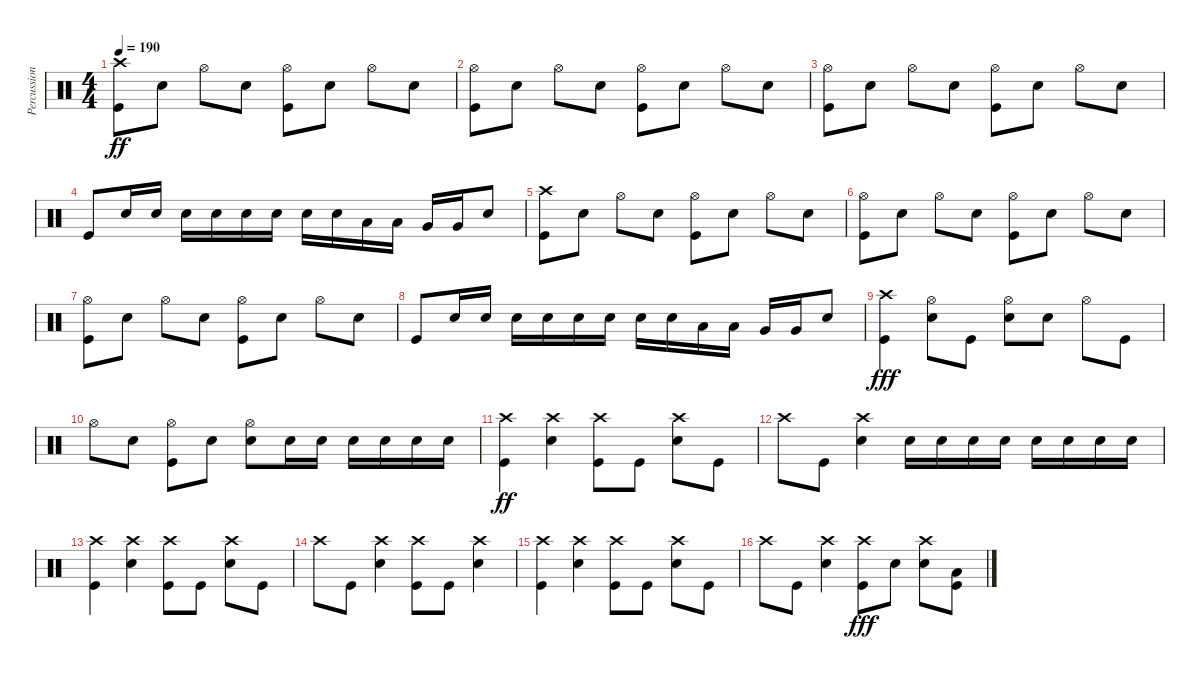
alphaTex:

\track ("Percussions" "Percussion") {instrument percussion}
\staff {score}
\articulation defaults
\ts (4 4)
\tempo 190
\clef neutral
\ks c
("Crash high (hit)" "Kick (hit)").8{dy ff} "Electric Snare (hit)".8 "Hi-Hat (open)".8 "Electric Snare (hit)".8 ("Hi-Hat (open)" "Kick (hit)").8 "Electric Snare (hit)".8 "Hi-Hat (open)".8 "Electric Snare (hit)".8 |
("Hi-Hat (open)" "Kick (hit)").8 "Electric Snare (hit)".8 "Hi-Hat (open)".8 "Electric Snare (hit)".8 ("Hi-Hat (open)" "Kick (hit)").8 "Electric Snare (hit)".8 "Hi-Hat (open)".8 "Electric Snare (hit)".8 |
("Hi-Hat (open)" "Kick (hit)").8 "Electric Snare (hit)".8 "Hi-Hat (open)".8 "Electric Snare (hit)".8 ("Hi-Hat (open)" "Kick (hit)").8 "Electric Snare (hit)".8 "Hi-Hat (open)".8 "Electric Snare (hit)".8 |
"Kick (hit)".8 "Electric Snare (hit)".16 "Electric Snare (hit)".16 "Electric Snare (hit)".16 "Electric Snare (hit)".16 "Electric Snare (hit)".16 "Electric Snare (hit)".16 "Electric Snare (hit)".16 "Electric Snare (hit)".16 "Low Tom (hit)".16 "Low Tom (hit)".16 "Very Low Tom (hit)".16 "Very Low Tom (hit)".16 "Electric Snare (hit)".8 |
("Crash high (hit)" "Kick (hit)").8 "Electric Snare (hit)".8 "Hi-Hat (open)".8 "Electric Snare (hit)".8 ("Hi-Hat (open)" "Kick (hit)").8 "Electric Snare (hit)".8 "Hi-Hat (open)".8 "Electric Snare (hit)".8 |
("Hi-Hat (open)" "Kick (hit)").8 "Electric Snare (hit)".8 "Hi-Hat (open)".8 "Electric Snare (hit)".8 ("Hi-Hat (open)" "Kick (hit)").8 "Electric Snare (hit)".8 "Hi-Hat (open)".8 "Electric Snare (hit)".8 |
("Hi-Hat (open)" "Kick (hit)").8 "Electric Snare (hit)".8 "Hi-Hat (open)".8 "Electric Snare (hit)".8 ("Hi-Hat (open)" "Kick (hit)").8 "Electric Snare (hit)".8 "Hi-Hat (open)".8 "Electric Snare (hit)".8 |
"Kick (hit)".8 "Electric Snare (hit)".16 "Electric Snare (hit)".16 "Electric Snare (hit)".16 "Electric Snare (hit)".16 "Electric Snare (hit)".16 "Electric Snare (hit)".16 "Electric Snare (hit)".16 "Electric Snare (hit)".16 "Low Tom (hit)".16 "Low Tom (hit)".16 "Very Low Tom (hit)".16 "Very Low Tom (hit)".16 "Electric Snare (hit)".8 |
("Crash high (hit)" "Kick (hit)").4{dy fff} ("Hi-Hat (open)" "Electric Snare (hit)").8 "Kick (hit)".8 ("Hi-Hat (open)" "Electric Snare (hit)").8 "Electric Snare (hit)".8 "Hi-Hat (open)".8 "Kick (hit)".8 |
"Hi-Hat (open)".8 "Electric Snare (hit)".8 ("Hi-Hat (open)" "Kick (hit)").8 "Electric Snare (hit)".8 ("Hi-Hat (open)" "Electric Snare (hit)").8 "Electric Snare (hit)".16 "Electric Snare (hit)".16 "Electric Snare (hit)".16 "Electric Snare (hit)".16 "Electric Snare (hit)".16 "Electric Snare (hit)".16 |
("Crash high (hit)" "Kick (hit)").4{dy ff} ("Crash high (hit)" "Electric Snare (hit)").4 ("Crash high (hit)" "Kick (hit)").8 "Kick (hit)".8 ("Crash high (hit)" "Electric Snare (hit)").8 "Kick (hit)".8 |
"Crash high (hit)".8 "Kick (hit)".8 ("Crash high (hit)" "Electric Snare (hit)").4 "Electric Snare (hit)".16 "Electric Snare (hit)".16 "Electric Snare (hit)".16 "Electric Snare (hit)".16 "Electric Snare (hit)".16 "Electric Snare (hit)".16 "Electric Snare (hit)".16 "Electric Snare (hit)".16 |
("Crash high (hit)" "Kick (hit)").4 ("Crash high (hit)" "Electric Snare (hit)").4 ("Crash high (hit)" "Kick (hit)").8 "Kick (hit)".8 ("Crash high (hit)" "Electric Snare (hit)").8 "Kick (hit)".8 |
"Crash high (hit)".8 "Kick (hit)".8 ("Crash high (hit)" "Electric Snare (hit)").4 ("Crash high (hit)" "Kick (hit)").8 "Kick (hit)".8 ("Crash high (hit)" "Electric Snare (hit)").4 |
("Crash high (hit)" "Kick (hit)").4 ("Crash high (hit)" "Electric Snare (hit)").4 ("Crash high (hit)" "Kick (hit)").8 "Kick (hit)".8 ("Crash high (hit)" "Electric Snare (hit)").8 "Kick (hit)".8 |
"Crash high (hit)".8 "Kick (hit)".8 ("Crash high (hit)" "Electric Snare (hit)").4 ("Crash high (hit)" "Kick (hit)").8{dy fff} "Electric Snare (hit)".8 ("Crash high (hit)" "Electric Snare (hit)").8 ("Low Tom (hit)" "Kick (hit)").8
